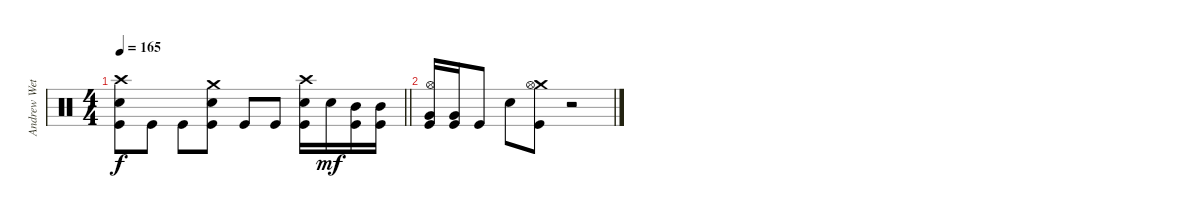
\track ("Andrew Wetzel" "Andrew Wet") {instrument percussion}
\staff {score}
\articulation defaults
\ts (4 4)
\tempo 165
\clef neutral
\barLineRight lightlight
\ks c
("Crash high (hit)" "Snare (hit) 2" "Kick (hit)").8{dy f} "Kick (hit)".8 "Kick (hit)".8 ("Crash medium (hit)" "Snare (hit) 2" "Kick (hit)").8 "Kick (hit)".8 "Kick (hit)".8 ("Crash high (hit)" "Snare (hit) 2" "Kick (hit)").16 "Snare (hit) 2".16{dy mf} ("Mid Tom (hit)" "Kick (hit)").16 ("Mid Tom (hit)" "Kick (hit)").16 |
("Hi-Hat (open)" "Very Low Tom (hit)" "Kick (hit)").16 ("Very Low Tom (hit)" "Kick (hit)").16 "Kick (hit)".8 "Snare (hit) 2".8 ("Crash medium (hit)" "Hi-Hat (open)" "Kick (hit)").8 r.2
